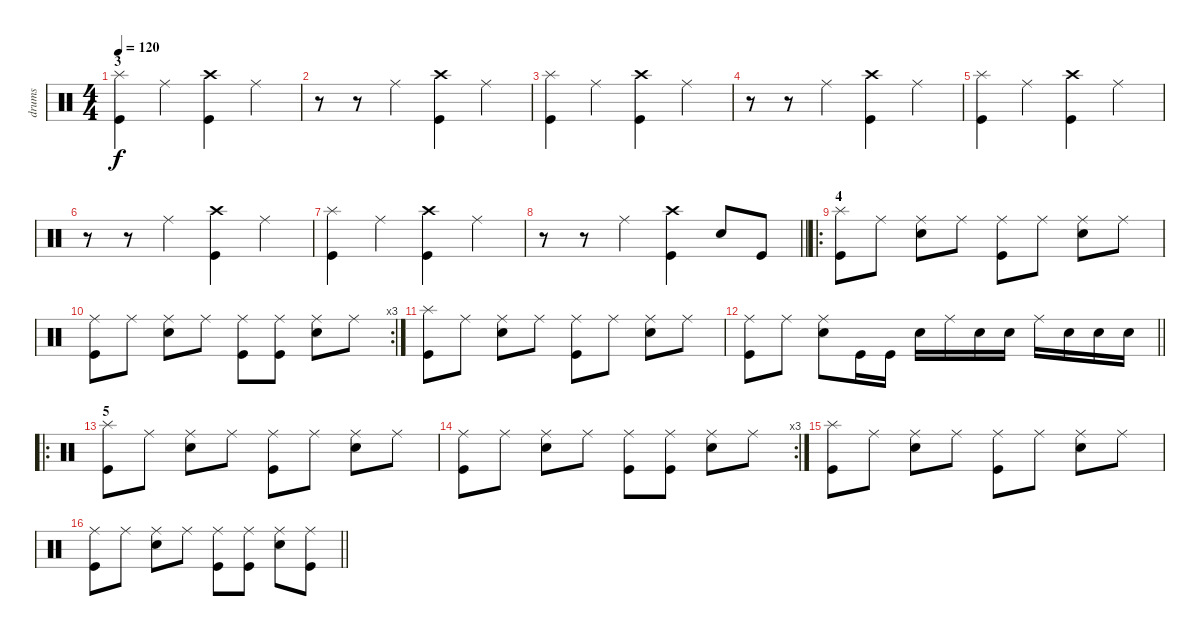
\track ("drums" "drums") {instrument percussion}
\staff {score}
\articulation defaults
\ts (4 4)
\section ("" "3")
\tempo 120
\clef neutral
\ks c
("Splash (hit)" "Kick (hit)").4{dy f} "Ride (middle)".4 ("Crash high (hit)" "Kick (hit)").4 "Ride (middle)".4 |
r.8 r.8 "Ride (middle)".4 ("Crash high (hit)" "Kick (hit)").4 "Ride (middle)".4 |
("Splash (hit)" "Kick (hit)").4 "Ride (middle)".4 ("Crash high (hit)" "Kick (hit)").4 "Ride (middle)".4 |
r.8 r.8 "Ride (middle)".4 ("Crash high (hit)" "Kick (hit)").4 "Ride (middle)".4 |
("Splash (hit)" "Kick (hit)").4 "Ride (middle)".4 ("Crash high (hit)" "Kick (hit)").4 "Ride (middle)".4 |
r.8 r.8 "Ride (middle)".4 ("Crash high (hit)" "Kick (hit)").4 "Ride (middle)".4 |
("Splash (hit)" "Kick (hit)").4 "Ride (middle)".4 ("Crash high (hit)" "Kick (hit)").4 "Ride (middle)".4 |
\barLineRight lightlight
r.8 r.8 "Ride (middle)".4 ("Crash high (hit)" "Kick (hit)").4 "Electric Snare (hit)".8 "Kick (hit)".8 |
\ro
\section ("" "4")
("Splash (hit)" "Kick (hit)").8 "Ride (middle)".8 ("Ride (middle)" "Electric Snare (hit)").8 "Ride (middle)".8 ("Ride (middle)" "Kick (hit)").8 "Ride (middle)".8 ("Ride (middle)" "Electric Snare (hit)").8 "Ride (middle)".8 |
\rc 3
("Ride (middle)" "Kick (hit)").8 "Ride (middle)".8 ("Ride (middle)" "Electric Snare (hit)").8 "Ride (middle)".8 ("Ride (middle)" "Kick (hit)").8 ("Ride (middle)" "Kick (hit)").8 ("Ride (middle)" "Electric Snare (hit)").8 "Ride (middle)".8 |
("Splash (hit)" "Kick (hit)").8 "Ride (middle)".8 ("Ride (middle)" "Electric Snare (hit)").8 "Ride (middle)".8 ("Ride (middle)" "Kick (hit)").8 "Ride (middle)".8 ("Ride (middle)" "Electric Snare (hit)").8 "Ride (middle)".8 |
\barLineRight lightlight
("Ride (middle)" "Kick (hit)").8 "Ride (middle)".8 ("Ride (middle)" "Electric Snare (hit)").8 "Kick (hit)".16 "Kick (hit)".16 "Electric Snare (hit)".16 "Ride (middle)".16 "Electric Snare (hit)".16 "Electric Snare (hit)".16 "Ride (middle)".16 "Electric Snare (hit)".16 "Electric Snare (hit)".16 "Electric Snare (hit)".16 |
\ro
\section ("" "5")
("Splash (hit)" "Kick (hit)").8 "Ride (middle)".8 ("Ride (middle)" "Electric Snare (hit)").8 "Ride (middle)".8 ("Ride (middle)" "Kick (hit)").8 "Ride (middle)".8 ("Ride (middle)" "Electric Snare (hit)").8 "Ride (middle)".8 |
\rc 3
("Ride (middle)" "Kick (hit)").8 "Ride (middle)".8 ("Ride (middle)" "Electric Snare (hit)").8 "Ride (middle)".8 ("Ride (middle)" "Kick (hit)").8 ("Ride (middle)" "Kick (hit)").8 ("Ride (middle)" "Electric Snare (hit)").8 "Ride (middle)".8 |
("Splash (hit)" "Kick (hit)").8 "Ride (middle)".8 ("Ride (middle)" "Electric Snare (hit)").8 "Ride (middle)".8 ("Ride (middle)" "Kick (hit)").8 "Ride (middle)".8 ("Ride (middle)" "Electric Snare (hit)").8 "Ride (middle)".8 |
\barLineRight lightlight
("Ride (middle)" "Kick (hit)").8 "Ride (middle)".8 ("Ride (middle)" "Electric Snare (hit)").8 "Ride (middle)".8 ("Ride (middle)" "Kick (hit)").8 ("Ride (middle)" "Kick (hit)").8 ("Ride (middle)" "Electric Snare (hit)").8 ("Ride (middle)" "Kick (hit)").8
